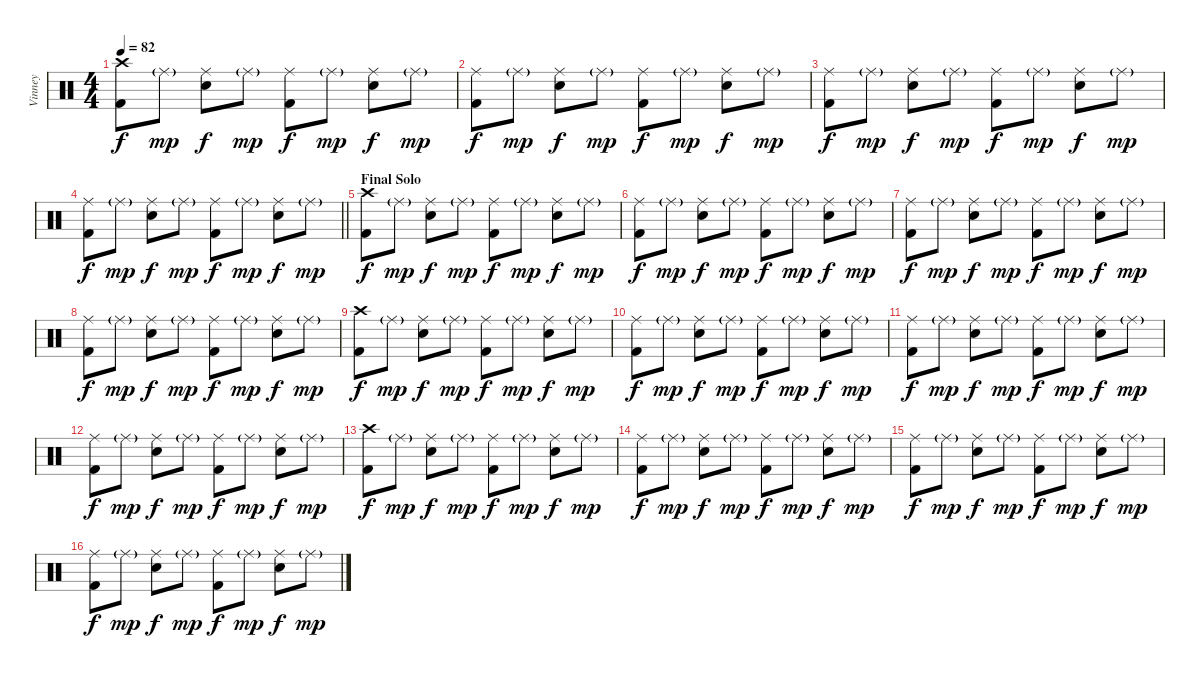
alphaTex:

\track ("Vinney" "Vinney") {instrument percussion}
\staff {score}
\articulation defaults
\ts (4 4)
\tempo 82
\clef neutral
\ks c
("Crash high (hit)" "Kick (hit) 2").8{dy f} "Ride (middle)"{g}.8{dy mp} ("Ride (middle)" "Electric Snare (hit)").8{dy f} "Ride (middle)"{g}.8{dy mp} ("Ride (middle)" "Kick (hit) 2").8{dy f} "Ride (middle)"{g}.8{dy mp} ("Ride (middle)" "Electric Snare (hit)").8{dy f} "Ride (middle)"{g}.8{dy mp} |
("Ride (middle)" "Kick (hit) 2").8{dy f} "Ride (middle)"{g}.8{dy mp} ("Ride (middle)" "Electric Snare (hit)").8{dy f} "Ride (middle)"{g}.8{dy mp} ("Ride (middle)" "Kick (hit) 2").8{dy f} "Ride (middle)"{g}.8{dy mp} ("Ride (middle)" "Electric Snare (hit)").8{dy f} "Ride (middle)"{g}.8{dy mp} |
("Ride (middle)" "Kick (hit) 2").8{dy f} "Ride (middle)"{g}.8{dy mp} ("Ride (middle)" "Electric Snare (hit)").8{dy f} "Ride (middle)"{g}.8{dy mp} ("Ride (middle)" "Kick (hit) 2").8{dy f} "Ride (middle)"{g}.8{dy mp} ("Ride (middle)" "Electric Snare (hit)").8{dy f} "Ride (middle)"{g}.8{dy mp} |
\barLineRight lightlight
("Ride (middle)" "Kick (hit) 2").8{dy f} "Ride (middle)"{g}.8{dy mp} ("Ride (middle)" "Electric Snare (hit)").8{dy f} "Ride (middle)"{g}.8{dy mp} ("Ride (middle)" "Kick (hit) 2").8{dy f} "Ride (middle)"{g}.8{dy mp} ("Ride (middle)" "Electric Snare (hit)").8{dy f} "Ride (middle)"{g}.8{dy mp} |
\section ("" "Final Solo")
("Crash high (hit)" "Kick (hit) 2").8{dy f} "Ride (middle)"{g}.8{dy mp} ("Ride (middle)" "Electric Snare (hit)").8{dy f} "Ride (middle)"{g}.8{dy mp} ("Ride (middle)" "Kick (hit) 2").8{dy f} "Ride (middle)"{g}.8{dy mp} ("Ride (middle)" "Electric Snare (hit)").8{dy f} "Ride (middle)"{g}.8{dy mp} |
("Ride (middle)" "Kick (hit) 2").8{dy f} "Ride (middle)"{g}.8{dy mp} ("Ride (middle)" "Electric Snare (hit)").8{dy f} "Ride (middle)"{g}.8{dy mp} ("Ride (middle)" "Kick (hit) 2").8{dy f} "Ride (middle)"{g}.8{dy mp} ("Ride (middle)" "Electric Snare (hit)").8{dy f} "Ride (middle)"{g}.8{dy mp} |
("Ride (middle)" "Kick (hit) 2").8{dy f} "Ride (middle)"{g}.8{dy mp} ("Ride (middle)" "Electric Snare (hit)").8{dy f} "Ride (middle)"{g}.8{dy mp} ("Ride (middle)" "Kick (hit) 2").8{dy f} "Ride (middle)"{g}.8{dy mp} ("Ride (middle)" "Electric Snare (hit)").8{dy f} "Ride (middle)"{g}.8{dy mp} |
("Ride (middle)" "Kick (hit) 2").8{dy f} "Ride (middle)"{g}.8{dy mp} ("Ride (middle)" "Electric Snare (hit)").8{dy f} "Ride (middle)"{g}.8{dy mp} ("Ride (middle)" "Kick (hit) 2").8{dy f} "Ride (middle)"{g}.8{dy mp} ("Ride (middle)" "Electric Snare (hit)").8{dy f} "Ride (middle)"{g}.8{dy mp} |
("Crash high (hit)" "Kick (hit) 2").8{dy f} "Ride (middle)"{g}.8{dy mp} ("Ride (middle)" "Electric Snare (hit)").8{dy f} "Ride (middle)"{g}.8{dy mp} ("Ride (middle)" "Kick (hit) 2").8{dy f} "Ride (middle)"{g}.8{dy mp} ("Ride (middle)" "Electric Snare (hit)").8{dy f} "Ride (middle)"{g}.8{dy mp} |
("Ride (middle)" "Kick (hit) 2").8{dy f} "Ride (middle)"{g}.8{dy mp} ("Ride (middle)" "Electric Snare (hit)").8{dy f} "Ride (middle)"{g}.8{dy mp} ("Ride (middle)" "Kick (hit) 2").8{dy f} "Ride (middle)"{g}.8{dy mp} ("Ride (middle)" "Electric Snare (hit)").8{dy f} "Ride (middle)"{g}.8{dy mp} |
("Ride (middle)" "Kick (hit) 2").8{dy f} "Ride (middle)"{g}.8{dy mp} ("Ride (middle)" "Electric Snare (hit)").8{dy f} "Ride (middle)"{g}.8{dy mp} ("Ride (middle)" "Kick (hit) 2").8{dy f} "Ride (middle)"{g}.8{dy mp} ("Ride (middle)" "Electric Snare (hit)").8{dy f} "Ride (middle)"{g}.8{dy mp} |
("Ride (middle)" "Kick (hit) 2").8{dy f} "Ride (middle)"{g}.8{dy mp} ("Ride (middle)" "Electric Snare (hit)").8{dy f} "Ride (middle)"{g}.8{dy mp} ("Ride (middle)" "Kick (hit) 2").8{dy f} "Ride (middle)"{g}.8{dy mp} ("Ride (middle)" "Electric Snare (hit)").8{dy f} "Ride (middle)"{g}.8{dy mp} |
("Crash high (hit)" "Kick (hit) 2").8{dy f} "Ride (middle)"{g}.8{dy mp} ("Ride (middle)" "Electric Snare (hit)").8{dy f} "Ride (middle)"{g}.8{dy mp} ("Ride (middle)" "Kick (hit) 2").8{dy f} "Ride (middle)"{g}.8{dy mp} ("Ride (middle)" "Electric Snare (hit)").8{dy f} "Ride (middle)"{g}.8{dy mp} |
("Ride (middle)" "Kick (hit) 2").8{dy f} "Ride (middle)"{g}.8{dy mp} ("Ride (middle)" "Electric Snare (hit)").8{dy f} "Ride (middle)"{g}.8{dy mp} ("Ride (middle)" "Kick (hit) 2").8{dy f} "Ride (middle)"{g}.8{dy mp} ("Ride (middle)" "Electric Snare (hit)").8{dy f} "Ride (middle)"{g}.8{dy mp} |
("Ride (middle)" "Kick (hit) 2").8{dy f} "Ride (middle)"{g}.8{dy mp} ("Ride (middle)" "Electric Snare (hit)").8{dy f} "Ride (middle)"{g}.8{dy mp} ("Ride (middle)" "Kick (hit) 2").8{dy f} "Ride (middle)"{g}.8{dy mp} ("Ride (middle)" "Electric Snare (hit)").8{dy f} "Ride (middle)"{g}.8{dy mp} |
("Ride (middle)" "Kick (hit) 2").8{dy f} "Ride (middle)"{g}.8{dy mp} ("Ride (middle)" "Electric Snare (hit)").8{dy f} "Ride (middle)"{g}.8{dy mp} ("Ride (middle)" "Kick (hit) 2").8{dy f} "Ride (middle)"{g}.8{dy mp} ("Ride (middle)" "Electric Snare (hit)").8{dy f} "Ride (middle)"{g}.8{dy mp}
